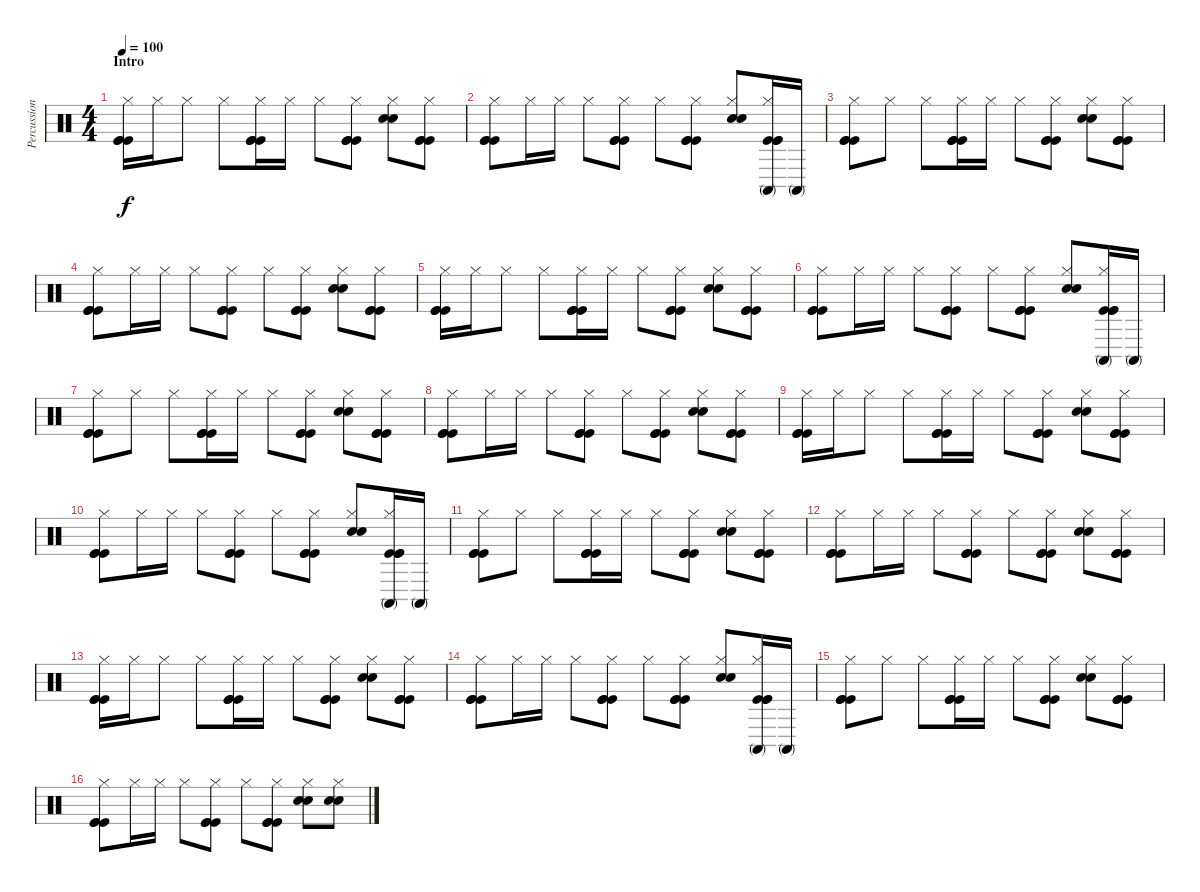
\track ("Percussion" "Percussion") {instrument percussion}
\staff {score}
\articulation defaults
\ts (4 4)
\section ("" "Intro")
\tempo 100
\clef neutral
\ks c
("Hi-Hat (closed)" "Kick (hit)" "Kick (hit)" "Kick (hit)").16{dy f} "Hi-Hat (closed)".16 "Hi-Hat (closed)".8 "Hi-Hat (closed)".8 ("Hi-Hat (closed)" "Kick (hit)" "Kick (hit)" "Kick (hit)").16 "Hi-Hat (closed)".16 "Hi-Hat (closed)".8 ("Hi-Hat (closed)" "Kick (hit)" "Kick (hit)" "Kick (hit)").8 ("Hi-Hat (closed)" "Electric Snare (hit)" "Electric Snare (hit)").8 ("Hi-Hat (closed)" "Kick (hit)" "Kick (hit)" "Kick (hit)").8 |
("Hi-Hat (closed)" "Kick (hit)" "Kick (hit)" "Kick (hit)").8 "Hi-Hat (closed)".16 "Hi-Hat (closed)".16 "Hi-Hat (closed)".8 ("Hi-Hat (closed)" "Kick (hit)" "Kick (hit)" "Kick (hit)").8 "Hi-Hat (closed)".8 ("Hi-Hat (closed)" "Kick (hit)" "Kick (hit)" "Kick (hit)").8 ("Hi-Hat (closed)" "Electric Snare (hit)" "Electric Snare (hit)").8 ("Hi-Hat (closed)" "Conga high (mute)" "Kick (hit)" "Kick (hit)" "Kick (hit)").16 "Conga high (mute)".16 |
("Hi-Hat (closed)" "Kick (hit)" "Kick (hit)" "Kick (hit)").8 "Hi-Hat (closed)".8 "Hi-Hat (closed)".8 ("Hi-Hat (closed)" "Kick (hit)" "Kick (hit)" "Kick (hit)").16 "Hi-Hat (closed)".16 "Hi-Hat (closed)".8 ("Hi-Hat (closed)" "Kick (hit)" "Kick (hit)" "Kick (hit)").8 ("Hi-Hat (closed)" "Electric Snare (hit)" "Electric Snare (hit)").8 ("Hi-Hat (closed)" "Kick (hit)" "Kick (hit)" "Kick (hit)").8 |
("Hi-Hat (closed)" "Kick (hit)" "Kick (hit)" "Kick (hit)").8 "Hi-Hat (closed)".16 "Hi-Hat (closed)".16 "Hi-Hat (closed)".8 ("Hi-Hat (closed)" "Kick (hit)" "Kick (hit)" "Kick (hit)").8 "Hi-Hat (closed)".8 ("Hi-Hat (closed)" "Kick (hit)" "Kick (hit)" "Kick (hit)").8 ("Hi-Hat (closed)" "Electric Snare (hit)" "Electric Snare (hit)").8 ("Hi-Hat (closed)" "Kick (hit)" "Kick (hit)" "Kick (hit)").8 |
("Hi-Hat (closed)" "Kick (hit)" "Kick (hit)" "Kick (hit)").16 "Hi-Hat (closed)".16 "Hi-Hat (closed)".8 "Hi-Hat (closed)".8 ("Hi-Hat (closed)" "Kick (hit)" "Kick (hit)" "Kick (hit)").16 "Hi-Hat (closed)".16 "Hi-Hat (closed)".8 ("Hi-Hat (closed)" "Kick (hit)" "Kick (hit)" "Kick (hit)").8 ("Hi-Hat (closed)" "Electric Snare (hit)" "Electric Snare (hit)").8 ("Hi-Hat (closed)" "Kick (hit)" "Kick (hit)" "Kick (hit)").8 |
("Hi-Hat (closed)" "Kick (hit)" "Kick (hit)" "Kick (hit)").8 "Hi-Hat (closed)".16 "Hi-Hat (closed)".16 "Hi-Hat (closed)".8 ("Hi-Hat (closed)" "Kick (hit)" "Kick (hit)" "Kick (hit)").8 "Hi-Hat (closed)".8 ("Hi-Hat (closed)" "Kick (hit)" "Kick (hit)" "Kick (hit)").8 ("Hi-Hat (closed)" "Electric Snare (hit)" "Electric Snare (hit)").8 ("Hi-Hat (closed)" "Conga high (mute)" "Kick (hit)" "Kick (hit)" "Kick (hit)").16 "Conga high (mute)".16 |
("Hi-Hat (closed)" "Kick (hit)" "Kick (hit)" "Kick (hit)").8 "Hi-Hat (closed)".8 "Hi-Hat (closed)".8 ("Hi-Hat (closed)" "Kick (hit)" "Kick (hit)" "Kick (hit)").16 "Hi-Hat (closed)".16 "Hi-Hat (closed)".8 ("Hi-Hat (closed)" "Kick (hit)" "Kick (hit)" "Kick (hit)").8 ("Hi-Hat (closed)" "Electric Snare (hit)" "Electric Snare (hit)").8 ("Hi-Hat (closed)" "Kick (hit)" "Kick (hit)" "Kick (hit)").8 |
("Hi-Hat (closed)" "Kick (hit)" "Kick (hit)" "Kick (hit)").8 "Hi-Hat (closed)".16 "Hi-Hat (closed)".16 "Hi-Hat (closed)".8 ("Hi-Hat (closed)" "Kick (hit)" "Kick (hit)" "Kick (hit)").8 "Hi-Hat (closed)".8 ("Hi-Hat (closed)" "Kick (hit)" "Kick (hit)" "Kick (hit)").8 ("Hi-Hat (closed)" "Electric Snare (hit)" "Electric Snare (hit)").8 ("Hi-Hat (closed)" "Kick (hit)" "Kick (hit)" "Kick (hit)").8 |
("Hi-Hat (closed)" "Kick (hit)" "Kick (hit)" "Kick (hit)").16 "Hi-Hat (closed)".16 "Hi-Hat (closed)".8 "Hi-Hat (closed)".8 ("Hi-Hat (closed)" "Kick (hit)" "Kick (hit)" "Kick (hit)").16 "Hi-Hat (closed)".16 "Hi-Hat (closed)".8 ("Hi-Hat (closed)" "Kick (hit)" "Kick (hit)" "Kick (hit)").8 ("Hi-Hat (closed)" "Electric Snare (hit)" "Electric Snare (hit)").8 ("Hi-Hat (closed)" "Kick (hit)" "Kick (hit)" "Kick (hit)").8 |
("Hi-Hat (closed)" "Kick (hit)" "Kick (hit)" "Kick (hit)").8 "Hi-Hat (closed)".16 "Hi-Hat (closed)".16 "Hi-Hat (closed)".8 ("Hi-Hat (closed)" "Kick (hit)" "Kick (hit)" "Kick (hit)").8 "Hi-Hat (closed)".8 ("Hi-Hat (closed)" "Kick (hit)" "Kick (hit)" "Kick (hit)").8 ("Hi-Hat (closed)" "Electric Snare (hit)" "Electric Snare (hit)").8 ("Hi-Hat (closed)" "Conga high (mute)" "Kick (hit)" "Kick (hit)" "Kick (hit)").16 "Conga high (mute)".16 |
("Hi-Hat (closed)" "Kick (hit)" "Kick (hit)" "Kick (hit)").8 "Hi-Hat (closed)".8 "Hi-Hat (closed)".8 ("Hi-Hat (closed)" "Kick (hit)" "Kick (hit)" "Kick (hit)").16 "Hi-Hat (closed)".16 "Hi-Hat (closed)".8 ("Hi-Hat (closed)" "Kick (hit)" "Kick (hit)" "Kick (hit)").8 ("Hi-Hat (closed)" "Electric Snare (hit)" "Electric Snare (hit)").8 ("Hi-Hat (closed)" "Kick (hit)" "Kick (hit)" "Kick (hit)").8 |
("Hi-Hat (closed)" "Kick (hit)" "Kick (hit)" "Kick (hit)").8 "Hi-Hat (closed)".16 "Hi-Hat (closed)".16 "Hi-Hat (closed)".8 ("Hi-Hat (closed)" "Kick (hit)" "Kick (hit)" "Kick (hit)").8 "Hi-Hat (closed)".8 ("Hi-Hat (closed)" "Kick (hit)" "Kick (hit)" "Kick (hit)").8 ("Hi-Hat (closed)" "Electric Snare (hit)" "Electric Snare (hit)").8 ("Hi-Hat (closed)" "Kick (hit)" "Kick (hit)" "Kick (hit)").8 |
("Hi-Hat (closed)" "Kick (hit)" "Kick (hit)" "Kick (hit)").16 "Hi-Hat (closed)".16 "Hi-Hat (closed)".8 "Hi-Hat (closed)".8 ("Hi-Hat (closed)" "Kick (hit)" "Kick (hit)" "Kick (hit)").16 "Hi-Hat (closed)".16 "Hi-Hat (closed)".8 ("Hi-Hat (closed)" "Kick (hit)" "Kick (hit)" "Kick (hit)").8 ("Hi-Hat (closed)" "Electric Snare (hit)" "Electric Snare (hit)").8 ("Hi-Hat (closed)" "Kick (hit)" "Kick (hit)" "Kick (hit)").8 |
("Hi-Hat (closed)" "Kick (hit)" "Kick (hit)" "Kick (hit)").8 "Hi-Hat (closed)".16 "Hi-Hat (closed)".16 "Hi-Hat (closed)".8 ("Hi-Hat (closed)" "Kick (hit)" "Kick (hit)" "Kick (hit)").8 "Hi-Hat (closed)".8 ("Hi-Hat (closed)" "Kick (hit)" "Kick (hit)" "Kick (hit)").8 ("Hi-Hat (closed)" "Electric Snare (hit)" "Electric Snare (hit)").8 ("Hi-Hat (closed)" "Conga high (mute)" "Kick (hit)" "Kick (hit)" "Kick (hit)").16 "Conga high (mute)".16 |
("Hi-Hat (closed)" "Kick (hit)" "Kick (hit)" "Kick (hit)").8 "Hi-Hat (closed)".8 "Hi-Hat (closed)".8 ("Hi-Hat (closed)" "Kick (hit)" "Kick (hit)" "Kick (hit)").16 "Hi-Hat (closed)".16 "Hi-Hat (closed)".8 ("Hi-Hat (closed)" "Kick (hit)" "Kick (hit)" "Kick (hit)").8 ("Hi-Hat (closed)" "Electric Snare (hit)" "Electric Snare (hit)").8 ("Hi-Hat (closed)" "Kick (hit)" "Kick (hit)" "Kick (hit)").8 |
("Hi-Hat (closed)" "Kick (hit)" "Kick (hit)" "Kick (hit)").8 "Hi-Hat (closed)".16 "Hi-Hat (closed)".16 "Hi-Hat (closed)".8 ("Hi-Hat (closed)" "Kick (hit)" "Kick (hit)" "Kick (hit)").8 "Hi-Hat (closed)".8 ("Hi-Hat (closed)" "Kick (hit)" "Kick (hit)" "Kick (hit)").8 ("Hi-Hat (closed)" "Electric Snare (hit)" "Electric Snare (hit)").8 ("Hi-Hat (closed)" "Electric Snare (hit)" "Electric Snare (hit)").8
